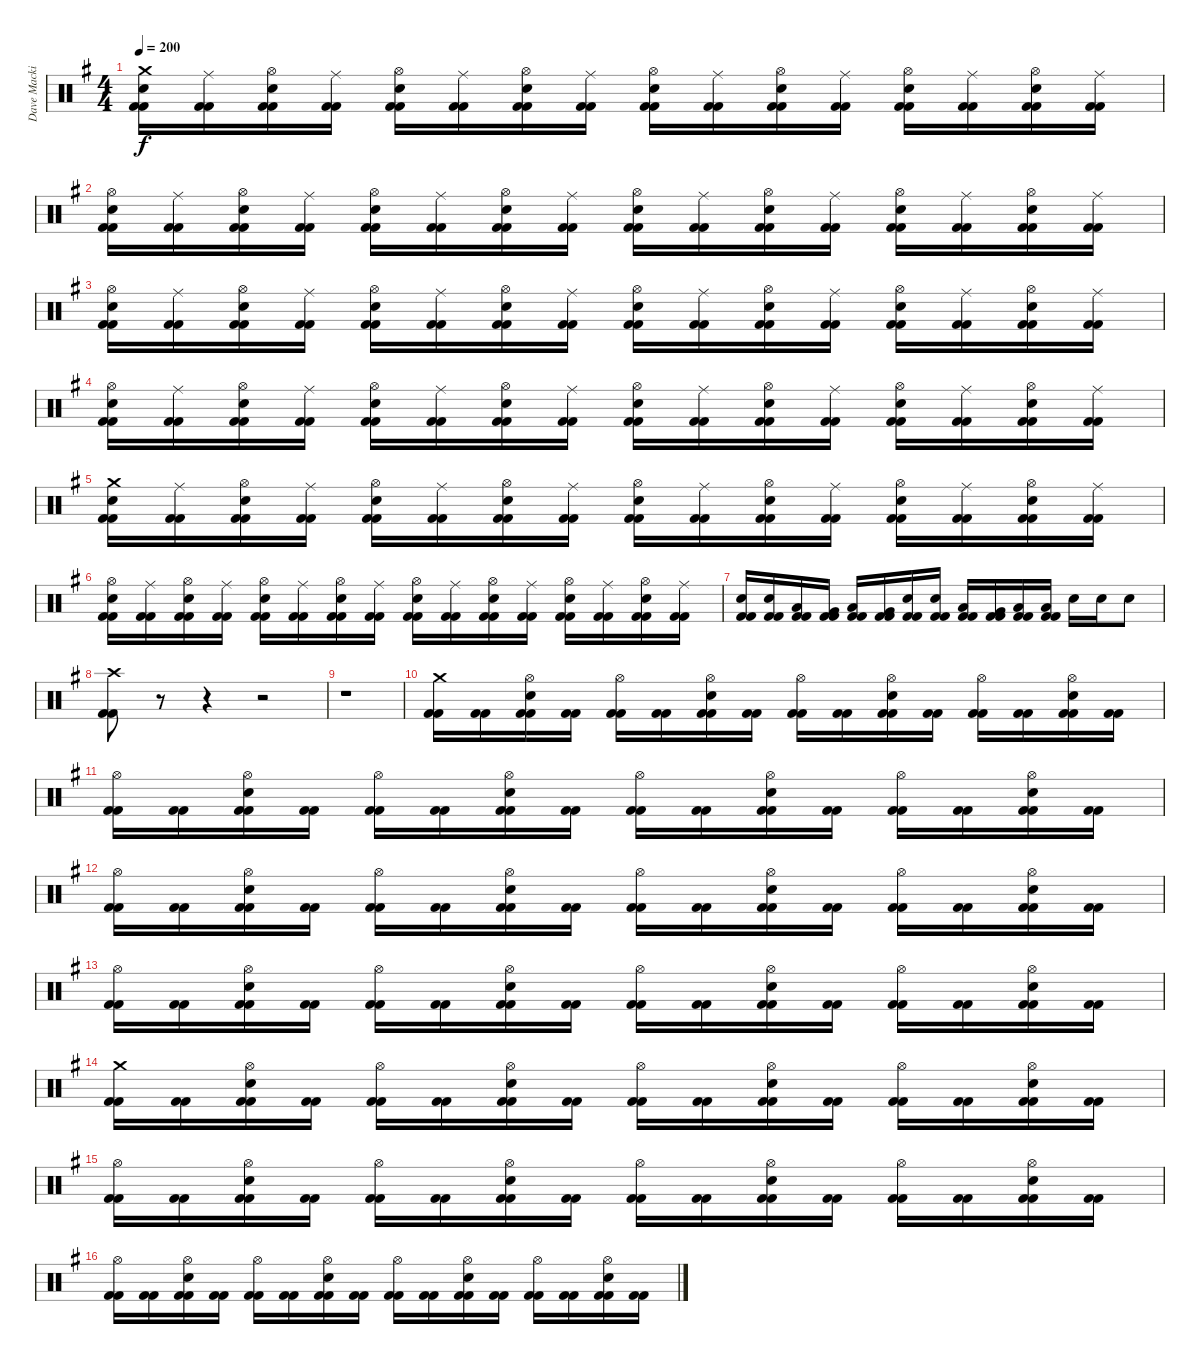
\track ("Dave Mackintosh" "Dave Macki") {instrument percussion}
\staff {score}
\articulation defaults
\ts (4 4)
\tempo 200
\clef neutral
\ks g
("Crash medium (hit)" "Electric Snare (hit)" "Kick (hit) 2" "Kick (hit) 2").16{dy f} ("Ride (middle)" "Kick (hit) 2" "Kick (hit) 2").16 ("Hi-Hat (open)" "Electric Snare (hit)" "Kick (hit) 2" "Kick (hit) 2").16 ("Ride (middle)" "Kick (hit) 2" "Kick (hit) 2").16 ("Hi-Hat (open)" "Electric Snare (hit)" "Kick (hit) 2" "Kick (hit) 2").16 ("Ride (middle)" "Kick (hit) 2" "Kick (hit) 2").16 ("Hi-Hat (open)" "Electric Snare (hit)" "Kick (hit) 2" "Kick (hit) 2").16 ("Ride (middle)" "Kick (hit) 2" "Kick (hit) 2").16 ("Hi-Hat (open)" "Electric Snare (hit)" "Kick (hit) 2" "Kick (hit) 2").16 ("Ride (middle)" "Kick (hit) 2" "Kick (hit) 2").16 ("Hi-Hat (open)" "Electric Snare (hit)" "Kick (hit) 2" "Kick (hit) 2").16 ("Ride (middle)" "Kick (hit) 2" "Kick (hit) 2").16 ("Hi-Hat (open)" "Electric Snare (hit)" "Kick (hit) 2" "Kick (hit) 2").16 ("Ride (middle)" "Kick (hit) 2" "Kick (hit) 2").16 ("Hi-Hat (open)" "Electric Snare (hit)" "Kick (hit) 2" "Kick (hit) 2").16 ("Ride (middle)" "Kick (hit) 2" "Kick (hit) 2").16 |
("Hi-Hat (open)" "Electric Snare (hit)" "Kick (hit) 2" "Kick (hit) 2").16 ("Ride (middle)" "Kick (hit) 2" "Kick (hit) 2").16 ("Hi-Hat (open)" "Electric Snare (hit)" "Kick (hit) 2" "Kick (hit) 2").16 ("Ride (middle)" "Kick (hit) 2" "Kick (hit) 2").16 ("Hi-Hat (open)" "Electric Snare (hit)" "Kick (hit) 2" "Kick (hit) 2").16 ("Ride (middle)" "Kick (hit) 2" "Kick (hit) 2").16 ("Hi-Hat (open)" "Electric Snare (hit)" "Kick (hit) 2" "Kick (hit) 2").16 ("Ride (middle)" "Kick (hit) 2" "Kick (hit) 2").16 ("Hi-Hat (open)" "Electric Snare (hit)" "Kick (hit) 2" "Kick (hit) 2").16 ("Ride (middle)" "Kick (hit) 2" "Kick (hit) 2").16 ("Hi-Hat (open)" "Electric Snare (hit)" "Kick (hit) 2" "Kick (hit) 2").16 ("Ride (middle)" "Kick (hit) 2" "Kick (hit) 2").16 ("Hi-Hat (open)" "Electric Snare (hit)" "Kick (hit) 2" "Kick (hit) 2").16 ("Ride (middle)" "Kick (hit) 2" "Kick (hit) 2").16 ("Hi-Hat (open)" "Electric Snare (hit)" "Kick (hit) 2" "Kick (hit) 2").16 ("Ride (middle)" "Kick (hit) 2" "Kick (hit) 2").16 |
("Hi-Hat (open)" "Electric Snare (hit)" "Kick (hit) 2" "Kick (hit) 2").16 ("Ride (middle)" "Kick (hit) 2" "Kick (hit) 2").16 ("Hi-Hat (open)" "Electric Snare (hit)" "Kick (hit) 2" "Kick (hit) 2").16 ("Ride (middle)" "Kick (hit) 2" "Kick (hit) 2").16 ("Hi-Hat (open)" "Electric Snare (hit)" "Kick (hit) 2" "Kick (hit) 2").16 ("Ride (middle)" "Kick (hit) 2" "Kick (hit) 2").16 ("Hi-Hat (open)" "Electric Snare (hit)" "Kick (hit) 2" "Kick (hit) 2").16 ("Ride (middle)" "Kick (hit) 2" "Kick (hit) 2").16 ("Hi-Hat (open)" "Electric Snare (hit)" "Kick (hit) 2" "Kick (hit) 2").16 ("Ride (middle)" "Kick (hit) 2" "Kick (hit) 2").16 ("Hi-Hat (open)" "Electric Snare (hit)" "Kick (hit) 2" "Kick (hit) 2").16 ("Ride (middle)" "Kick (hit) 2" "Kick (hit) 2").16 ("Hi-Hat (open)" "Electric Snare (hit)" "Kick (hit) 2" "Kick (hit) 2").16 ("Ride (middle)" "Kick (hit) 2" "Kick (hit) 2").16 ("Hi-Hat (open)" "Electric Snare (hit)" "Kick (hit) 2" "Kick (hit) 2").16 ("Ride (middle)" "Kick (hit) 2" "Kick (hit) 2").16 |
("Hi-Hat (open)" "Electric Snare (hit)" "Kick (hit) 2" "Kick (hit) 2").16 ("Ride (middle)" "Kick (hit) 2" "Kick (hit) 2").16 ("Hi-Hat (open)" "Electric Snare (hit)" "Kick (hit) 2" "Kick (hit) 2").16 ("Ride (middle)" "Kick (hit) 2" "Kick (hit) 2").16 ("Hi-Hat (open)" "Electric Snare (hit)" "Kick (hit) 2" "Kick (hit) 2").16 ("Ride (middle)" "Kick (hit) 2" "Kick (hit) 2").16 ("Hi-Hat (open)" "Electric Snare (hit)" "Kick (hit) 2" "Kick (hit) 2").16 ("Ride (middle)" "Kick (hit) 2" "Kick (hit) 2").16 ("Hi-Hat (open)" "Electric Snare (hit)" "Kick (hit) 2" "Kick (hit) 2").16 ("Ride (middle)" "Kick (hit) 2" "Kick (hit) 2").16 ("Hi-Hat (open)" "Electric Snare (hit)" "Kick (hit) 2" "Kick (hit) 2").16 ("Ride (middle)" "Kick (hit) 2" "Kick (hit) 2").16 ("Hi-Hat (open)" "Electric Snare (hit)" "Kick (hit) 2" "Kick (hit) 2").16 ("Ride (middle)" "Kick (hit) 2" "Kick (hit) 2").16 ("Hi-Hat (open)" "Electric Snare (hit)" "Kick (hit) 2" "Kick (hit) 2").16 ("Ride (middle)" "Kick (hit) 2" "Kick (hit) 2").16 |
("Crash medium (hit)" "Electric Snare (hit)" "Kick (hit) 2" "Kick (hit) 2").16 ("Ride (middle)" "Kick (hit) 2" "Kick (hit) 2").16 ("Hi-Hat (open)" "Electric Snare (hit)" "Kick (hit) 2" "Kick (hit) 2").16 ("Ride (middle)" "Kick (hit) 2" "Kick (hit) 2").16 ("Hi-Hat (open)" "Electric Snare (hit)" "Kick (hit) 2" "Kick (hit) 2").16 ("Ride (middle)" "Kick (hit) 2" "Kick (hit) 2").16 ("Hi-Hat (open)" "Electric Snare (hit)" "Kick (hit) 2" "Kick (hit) 2").16 ("Ride (middle)" "Kick (hit) 2" "Kick (hit) 2").16 ("Hi-Hat (open)" "Electric Snare (hit)" "Kick (hit) 2" "Kick (hit) 2").16 ("Ride (middle)" "Kick (hit) 2" "Kick (hit) 2").16 ("Hi-Hat (open)" "Electric Snare (hit)" "Kick (hit) 2" "Kick (hit) 2").16 ("Ride (middle)" "Kick (hit) 2" "Kick (hit) 2").16 ("Hi-Hat (open)" "Electric Snare (hit)" "Kick (hit) 2" "Kick (hit) 2").16 ("Ride (middle)" "Kick (hit) 2" "Kick (hit) 2").16 ("Hi-Hat (open)" "Electric Snare (hit)" "Kick (hit) 2" "Kick (hit) 2").16 ("Ride (middle)" "Kick (hit) 2" "Kick (hit) 2").16 |
("Hi-Hat (open)" "Electric Snare (hit)" "Kick (hit) 2" "Kick (hit) 2").16 ("Ride (middle)" "Kick (hit) 2" "Kick (hit) 2").16 ("Hi-Hat (open)" "Electric Snare (hit)" "Kick (hit) 2" "Kick (hit) 2").16 ("Ride (middle)" "Kick (hit) 2" "Kick (hit) 2").16 ("Hi-Hat (open)" "Electric Snare (hit)" "Kick (hit) 2" "Kick (hit) 2").16 ("Ride (middle)" "Kick (hit) 2" "Kick (hit) 2").16 ("Hi-Hat (open)" "Electric Snare (hit)" "Kick (hit) 2" "Kick (hit) 2").16 ("Ride (middle)" "Kick (hit) 2" "Kick (hit) 2").16 ("Hi-Hat (open)" "Electric Snare (hit)" "Kick (hit) 2" "Kick (hit) 2").16 ("Ride (middle)" "Kick (hit) 2" "Kick (hit) 2").16 ("Hi-Hat (open)" "Electric Snare (hit)" "Kick (hit) 2" "Kick (hit) 2").16 ("Ride (middle)" "Kick (hit) 2" "Kick (hit) 2").16 ("Hi-Hat (open)" "Electric Snare (hit)" "Kick (hit) 2" "Kick (hit) 2").16 ("Ride (middle)" "Kick (hit) 2" "Kick (hit) 2").16 ("Hi-Hat (open)" "Electric Snare (hit)" "Kick (hit) 2" "Kick (hit) 2").16 ("Ride (middle)" "Kick (hit) 2" "Kick (hit) 2").16 |
("Electric Snare (hit)" "Kick (hit) 2" "Kick (hit) 2").16 ("Electric Snare (hit)" "Kick (hit) 2" "Kick (hit) 2").16 ("Low Tom (hit)" "Kick (hit) 2" "Kick (hit) 2").16 ("Very Low Tom (hit)" "Kick (hit) 2" "Kick (hit) 2").16 ("Low Tom (hit)" "Kick (hit) 2" "Kick (hit) 2").16 ("Very Low Tom (hit)" "Kick (hit) 2" "Kick (hit) 2").16 ("Electric Snare (hit)" "Kick (hit) 2" "Kick (hit) 2").16 ("Electric Snare (hit)" "Kick (hit) 2" "Kick (hit) 2").16 ("Low Tom (hit)" "Kick (hit) 2" "Kick (hit) 2").16 ("Very Low Tom (hit)" "Kick (hit) 2" "Kick (hit) 2").16 ("Low Floor Tom (hit)" "Kick (hit) 2" "Kick (hit) 2").16 ("Low Floor Tom (hit)" "Kick (hit) 2" "Kick (hit) 2").16 "Electric Snare (hit)".16 "Electric Snare (hit)".16 "Electric Snare (hit)".8 |
("Crash high (hit)" "Kick (hit) 2" "Kick (hit) 2").8 r.8{volume 0} r.4 r.2 |
r.1 |
("Crash medium (hit)" "Kick (hit) 2" "Kick (hit) 2").16{volume 16} ("Kick (hit) 2" "Kick (hit) 2").16 ("Hi-Hat (open)" "Electric Snare (hit)" "Kick (hit) 2" "Kick (hit) 2").16 ("Kick (hit) 2" "Kick (hit) 2").16 ("Hi-Hat (open)" "Kick (hit) 2" "Kick (hit) 2").16 ("Kick (hit) 2" "Kick (hit) 2").16 ("Hi-Hat (open)" "Electric Snare (hit)" "Kick (hit) 2" "Kick (hit) 2").16 ("Kick (hit) 2" "Kick (hit) 2").16 ("Hi-Hat (open)" "Kick (hit) 2" "Kick (hit) 2").16 ("Kick (hit) 2" "Kick (hit) 2").16 ("Hi-Hat (open)" "Electric Snare (hit)" "Kick (hit) 2" "Kick (hit) 2").16 ("Kick (hit) 2" "Kick (hit) 2").16 ("Hi-Hat (open)" "Kick (hit) 2" "Kick (hit) 2").16 ("Kick (hit) 2" "Kick (hit) 2").16 ("Hi-Hat (open)" "Electric Snare (hit)" "Kick (hit) 2" "Kick (hit) 2").16 ("Kick (hit) 2" "Kick (hit) 2").16 |
("Hi-Hat (open)" "Kick (hit) 2" "Kick (hit) 2").16 ("Kick (hit) 2" "Kick (hit) 2").16 ("Hi-Hat (open)" "Electric Snare (hit)" "Kick (hit) 2" "Kick (hit) 2").16 ("Kick (hit) 2" "Kick (hit) 2").16 ("Hi-Hat (open)" "Kick (hit) 2" "Kick (hit) 2").16 ("Kick (hit) 2" "Kick (hit) 2").16 ("Hi-Hat (open)" "Electric Snare (hit)" "Kick (hit) 2" "Kick (hit) 2").16 ("Kick (hit) 2" "Kick (hit) 2").16 ("Hi-Hat (open)" "Kick (hit) 2" "Kick (hit) 2").16 ("Kick (hit) 2" "Kick (hit) 2").16 ("Hi-Hat (open)" "Electric Snare (hit)" "Kick (hit) 2" "Kick (hit) 2").16 ("Kick (hit) 2" "Kick (hit) 2").16 ("Hi-Hat (open)" "Kick (hit) 2" "Kick (hit) 2").16 ("Kick (hit) 2" "Kick (hit) 2").16 ("Hi-Hat (open)" "Electric Snare (hit)" "Kick (hit) 2" "Kick (hit) 2").16 ("Kick (hit) 2" "Kick (hit) 2").16 |
("Hi-Hat (open)" "Kick (hit) 2" "Kick (hit) 2").16 ("Kick (hit) 2" "Kick (hit) 2").16 ("Hi-Hat (open)" "Electric Snare (hit)" "Kick (hit) 2" "Kick (hit) 2").16 ("Kick (hit) 2" "Kick (hit) 2").16 ("Hi-Hat (open)" "Kick (hit) 2" "Kick (hit) 2").16 ("Kick (hit) 2" "Kick (hit) 2").16 ("Hi-Hat (open)" "Electric Snare (hit)" "Kick (hit) 2" "Kick (hit) 2").16 ("Kick (hit) 2" "Kick (hit) 2").16 ("Hi-Hat (open)" "Kick (hit) 2" "Kick (hit) 2").16 ("Kick (hit) 2" "Kick (hit) 2").16 ("Hi-Hat (open)" "Electric Snare (hit)" "Kick (hit) 2" "Kick (hit) 2").16 ("Kick (hit) 2" "Kick (hit) 2").16 ("Hi-Hat (open)" "Kick (hit) 2" "Kick (hit) 2").16 ("Kick (hit) 2" "Kick (hit) 2").16 ("Hi-Hat (open)" "Electric Snare (hit)" "Kick (hit) 2" "Kick (hit) 2").16 ("Kick (hit) 2" "Kick (hit) 2").16 |
("Hi-Hat (open)" "Kick (hit) 2" "Kick (hit) 2").16 ("Kick (hit) 2" "Kick (hit) 2").16 ("Hi-Hat (open)" "Electric Snare (hit)" "Kick (hit) 2" "Kick (hit) 2").16 ("Kick (hit) 2" "Kick (hit) 2").16 ("Hi-Hat (open)" "Kick (hit) 2" "Kick (hit) 2").16 ("Kick (hit) 2" "Kick (hit) 2").16 ("Hi-Hat (open)" "Electric Snare (hit)" "Kick (hit) 2" "Kick (hit) 2").16 ("Kick (hit) 2" "Kick (hit) 2").16 ("Hi-Hat (open)" "Kick (hit) 2" "Kick (hit) 2").16 ("Kick (hit) 2" "Kick (hit) 2").16 ("Hi-Hat (open)" "Electric Snare (hit)" "Kick (hit) 2" "Kick (hit) 2").16 ("Kick (hit) 2" "Kick (hit) 2").16 ("Hi-Hat (open)" "Kick (hit) 2" "Kick (hit) 2").16 ("Kick (hit) 2" "Kick (hit) 2").16 ("Hi-Hat (open)" "Electric Snare (hit)" "Kick (hit) 2" "Kick (hit) 2").16 ("Kick (hit) 2" "Kick (hit) 2").16 |
("Crash medium (hit)" "Kick (hit) 2" "Kick (hit) 2").16 ("Kick (hit) 2" "Kick (hit) 2").16 ("Hi-Hat (open)" "Electric Snare (hit)" "Kick (hit) 2" "Kick (hit) 2").16 ("Kick (hit) 2" "Kick (hit) 2").16 ("Hi-Hat (open)" "Kick (hit) 2" "Kick (hit) 2").16 ("Kick (hit) 2" "Kick (hit) 2").16 ("Hi-Hat (open)" "Electric Snare (hit)" "Kick (hit) 2" "Kick (hit) 2").16 ("Kick (hit) 2" "Kick (hit) 2").16 ("Hi-Hat (open)" "Kick (hit) 2" "Kick (hit) 2").16 ("Kick (hit) 2" "Kick (hit) 2").16 ("Hi-Hat (open)" "Electric Snare (hit)" "Kick (hit) 2" "Kick (hit) 2").16 ("Kick (hit) 2" "Kick (hit) 2").16 ("Hi-Hat (open)" "Kick (hit) 2" "Kick (hit) 2").16 ("Kick (hit) 2" "Kick (hit) 2").16 ("Hi-Hat (open)" "Electric Snare (hit)" "Kick (hit) 2" "Kick (hit) 2").16 ("Kick (hit) 2" "Kick (hit) 2").16 |
("Hi-Hat (open)" "Kick (hit) 2" "Kick (hit) 2").16 ("Kick (hit) 2" "Kick (hit) 2").16 ("Hi-Hat (open)" "Electric Snare (hit)" "Kick (hit) 2" "Kick (hit) 2").16 ("Kick (hit) 2" "Kick (hit) 2").16 ("Hi-Hat (open)" "Kick (hit) 2" "Kick (hit) 2").16 ("Kick (hit) 2" "Kick (hit) 2").16 ("Hi-Hat (open)" "Electric Snare (hit)" "Kick (hit) 2" "Kick (hit) 2").16 ("Kick (hit) 2" "Kick (hit) 2").16 ("Hi-Hat (open)" "Kick (hit) 2" "Kick (hit) 2").16 ("Kick (hit) 2" "Kick (hit) 2").16 ("Hi-Hat (open)" "Electric Snare (hit)" "Kick (hit) 2" "Kick (hit) 2").16 ("Kick (hit) 2" "Kick (hit) 2").16 ("Hi-Hat (open)" "Kick (hit) 2" "Kick (hit) 2").16 ("Kick (hit) 2" "Kick (hit) 2").16 ("Hi-Hat (open)" "Electric Snare (hit)" "Kick (hit) 2" "Kick (hit) 2").16 ("Kick (hit) 2" "Kick (hit) 2").16 |
("Hi-Hat (open)" "Kick (hit) 2" "Kick (hit) 2").16 ("Kick (hit) 2" "Kick (hit) 2").16 ("Hi-Hat (open)" "Electric Snare (hit)" "Kick (hit) 2" "Kick (hit) 2").16 ("Kick (hit) 2" "Kick (hit) 2").16 ("Hi-Hat (open)" "Kick (hit) 2" "Kick (hit) 2").16 ("Kick (hit) 2" "Kick (hit) 2").16 ("Hi-Hat (open)" "Electric Snare (hit)" "Kick (hit) 2" "Kick (hit) 2").16 ("Kick (hit) 2" "Kick (hit) 2").16 ("Hi-Hat (open)" "Kick (hit) 2" "Kick (hit) 2").16 ("Kick (hit) 2" "Kick (hit) 2").16 ("Hi-Hat (open)" "Electric Snare (hit)" "Kick (hit) 2" "Kick (hit) 2").16 ("Kick (hit) 2" "Kick (hit) 2").16 ("Hi-Hat (open)" "Kick (hit) 2" "Kick (hit) 2").16 ("Kick (hit) 2" "Kick (hit) 2").16 ("Hi-Hat (open)" "Electric Snare (hit)" "Kick (hit) 2" "Kick (hit) 2").16 ("Kick (hit) 2" "Kick (hit) 2").16
